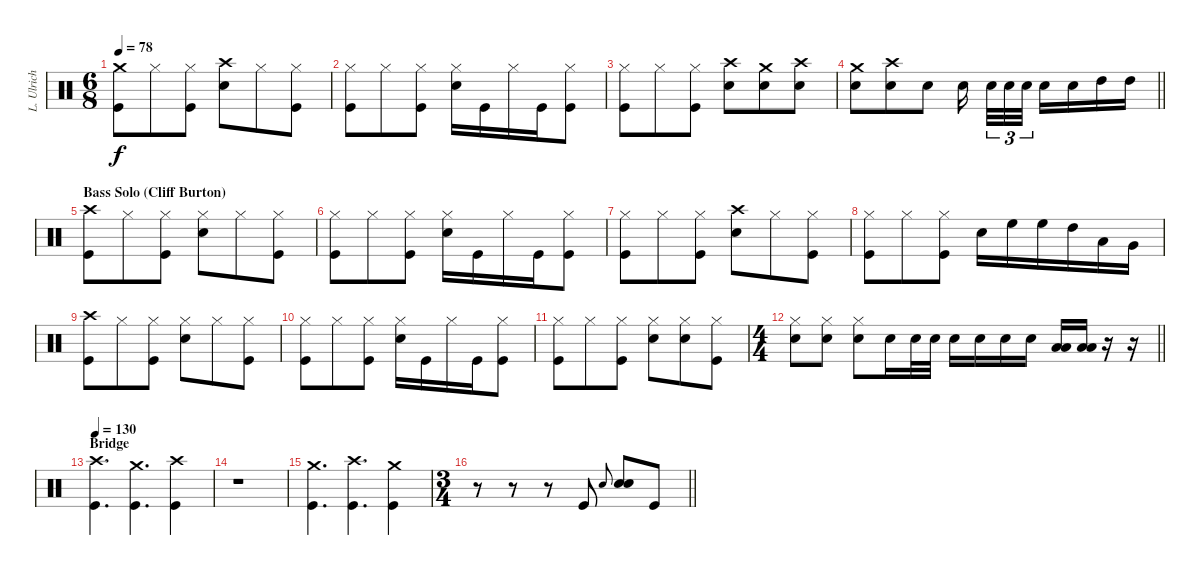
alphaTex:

\track ("L. Ulrich" "L. Ulrich") {instrument percussion}
\staff {score}
\articulation defaults
\ts (6 8)
\tempo 78
\clef neutral
\ks c
("Crash medium (hit)" "Kick (hit)").8{dy f} "Hi-Hat (closed)".8 ("Hi-Hat (closed)" "Kick (hit)").8 ("Crash high (hit)" "Snare (hit) 2").8 "Hi-Hat (closed)".8 ("Hi-Hat (closed)" "Kick (hit)").8 |
("Hi-Hat (closed)" "Kick (hit)").8 "Hi-Hat (closed)".8 ("Hi-Hat (closed)" "Kick (hit)").8 ("Hi-Hat (closed)" "Snare (hit) 2").16 "Kick (hit)".16 "Hi-Hat (closed)".16 "Kick (hit)".16 ("Hi-Hat (closed)" "Kick (hit)").8 |
("Hi-Hat (closed)" "Kick (hit)").8 "Hi-Hat (closed)".8 ("Hi-Hat (closed)" "Kick (hit)").8 ("Crash high (hit)" "Snare (hit) 2").8 ("Crash medium (hit)" "Snare (hit) 2").8 ("Crash high (hit)" "Snare (hit) 2").8 |
\barLineRight lightlight
("Crash medium (hit)" "Snare (hit) 2").8 ("Crash high (hit)" "Snare (hit) 2").8 "Snare (hit) 2".8 "Snare (hit) 2".16 "Snare (hit) 2".32{tu (3 2)} "Snare (hit) 2".32{tu (3 2)} "Snare (hit) 2".32{tu (3 2)} "Snare (hit) 2".16 "Snare (hit) 2".16 "High Tom (hit)".16 "High Tom (hit)".16 |
\section ("" "Bass Solo (Cliff Burton)")
("Crash high (hit)" "Kick (hit)").8 "Hi-Hat (closed)".8 ("Hi-Hat (closed)" "Kick (hit)").8 ("Hi-Hat (closed)" "Snare (hit) 2").8 "Hi-Hat (closed)".8 ("Hi-Hat (closed)" "Kick (hit)").8 |
("Hi-Hat (closed)" "Kick (hit)").8 "Hi-Hat (closed)".8 ("Hi-Hat (closed)" "Kick (hit)").8 ("Hi-Hat (closed)" "Snare (hit) 2").16 "Kick (hit)".16 "Hi-Hat (closed)".16 "Kick (hit)".16 ("Hi-Hat (closed)" "Kick (hit)").8 |
("Hi-Hat (closed)" "Kick (hit)").8 "Hi-Hat (closed)".8 ("Hi-Hat (closed)" "Kick (hit)").8 ("Crash high (hit)" "Snare (hit) 2").8 "Hi-Hat (closed)".8 ("Hi-Hat (closed)" "Kick (hit)").8 |
("Hi-Hat (closed)" "Kick (hit)").8 "Hi-Hat (closed)".8 ("Hi-Hat (closed)" "Kick (hit)").8 "Snare (hit) 2".16 "High Floor Tom (hit)".16 "High Floor Tom (hit)".16 "High Tom (hit)".16 "Low Tom (hit)".16 "Very Low Tom (hit)".16 |
("Crash high (hit)" "Kick (hit)").8 "Hi-Hat (closed)".8 ("Hi-Hat (closed)" "Kick (hit)").8 ("Hi-Hat (closed)" "Snare (hit) 2").8 "Hi-Hat (closed)".8 ("Hi-Hat (closed)" "Kick (hit)").8 |
("Hi-Hat (closed)" "Kick (hit)").8 "Hi-Hat (closed)".8 ("Hi-Hat (closed)" "Kick (hit)").8 ("Hi-Hat (closed)" "Snare (hit) 2").16 "Kick (hit)".16 "Hi-Hat (closed)".16 "Kick (hit)".16 ("Hi-Hat (closed)" "Kick (hit)").8 |
("Hi-Hat (closed)" "Kick (hit)").8 "Hi-Hat (closed)".8 ("Hi-Hat (closed)" "Kick (hit)").8 ("Hi-Hat (closed)" "Snare (hit) 2").8 ("Hi-Hat (closed)" "Snare (hit) 2").8 ("Hi-Hat (closed)" "Kick (hit)").8 |
\ts (4 4)
\barLineRight lightlight
("Hi-Hat (closed)" "Snare (hit) 2").8 ("Hi-Hat (closed)" "Snare (hit) 2").8 ("Hi-Hat (closed)" "Snare (hit) 2").8 "Snare (hit) 2".16 "Snare (hit) 2".32 "Snare (hit) 2".32 "Snare (hit) 2".16 "Snare (hit) 2".16 "Snare (hit) 2".16 "Snare (hit) 2".16 ("Low Tom (hit)" "Low Floor Tom (hit)").16 ("Low Tom (hit)" "Low Floor Tom (hit)").16 r.16 r.16 |
\section ("" "Bridge")
\tempo 130
("Crash high (hit)" "Kick (hit)").4{d} ("Crash medium (hit)" "Kick (hit)").4{d} ("Crash high (hit)" "Kick (hit)").4 |
r.1 |
("Crash medium (hit)" "Kick (hit)").4{d} ("Crash high (hit)" "Kick (hit)").4{d} ("Crash medium (hit)" "Kick (hit)").4 |
\ts (3 4)
\barLineRight lightlight
r.8 r.8 r.8 "Kick (hit)".8 "Snare (hit) 2".8{gr onbeat} ("Snare (hit) 2" "Snare (hit) 2").8 "Kick (hit)".8
